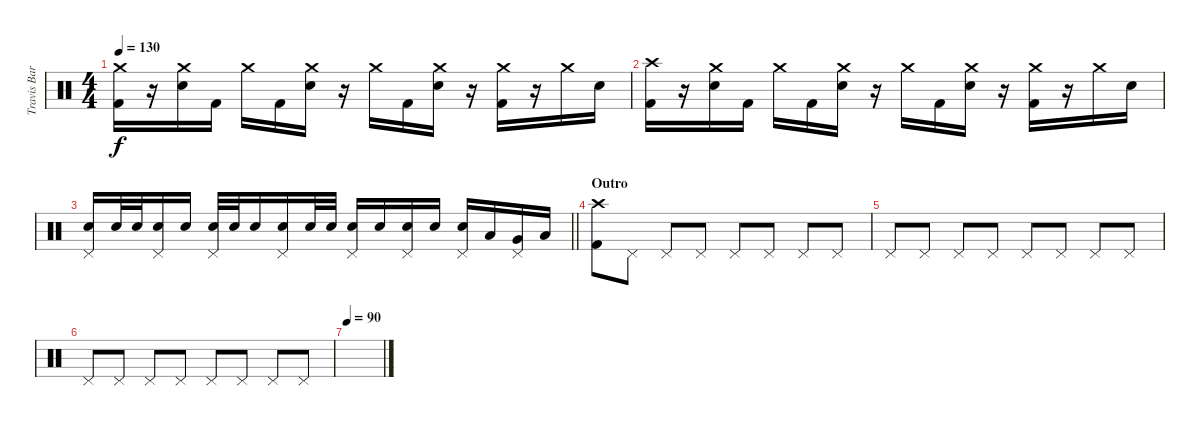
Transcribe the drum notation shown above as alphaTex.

\track ("Travis Barker [Drums]" "Travis Bar") {instrument percussion}
\staff {score}
\articulation defaults
\ts (4 4)
\tempo 130
\clef neutral
\ks c
("Crash medium (hit)" "Kick (hit) 2").16{dy f} r.16 ("Crash medium (hit)" "Electric Snare (hit)").16 "Kick (hit) 2".16 "Crash medium (hit)".16 "Kick (hit) 2".16 ("Crash medium (hit)" "Electric Snare (hit)").16 r.16 "Crash medium (hit)".16 "Kick (hit) 2".16 ("Crash medium (hit)" "Electric Snare (hit)").16 r.16 ("Crash medium (hit)" "Kick (hit) 2").16 r.16 "Crash medium (hit)".16 "Electric Snare (hit)".16 |
("Crash high (hit)" "Kick (hit) 2").16 r.16 ("Crash medium (hit)" "Electric Snare (hit)").16 "Kick (hit) 2".16 "Crash medium (hit)".16 "Kick (hit) 2".16 ("Crash medium (hit)" "Electric Snare (hit)").16 r.16 "Crash medium (hit)".16 "Kick (hit) 2".16 ("Crash medium (hit)" "Electric Snare (hit)").16 r.16 ("Crash medium (hit)" "Kick (hit) 2").16 r.16 "Crash medium (hit)".16 "Electric Snare (hit)".16 |
\barLineRight lightlight
("Pedal Hi-Hat (hit)" "Electric Snare (hit)").16 "Electric Snare (hit)".32 "Electric Snare (hit)".32 ("Pedal Hi-Hat (hit)" "Electric Snare (hit)").16 "Electric Snare (hit)".16 ("Pedal Hi-Hat (hit)" "Electric Snare (hit)").32 "Electric Snare (hit)".32 "Electric Snare (hit)".16 ("Pedal Hi-Hat (hit)" "Electric Snare (hit)").16 "Electric Snare (hit)".32 "Electric Snare (hit)".32 ("Pedal Hi-Hat (hit)" "Electric Snare (hit)").16 "Electric Snare (hit)".16 ("Pedal Hi-Hat (hit)" "Electric Snare (hit)").16 "Electric Snare (hit)".16 ("Pedal Hi-Hat (hit)" "Electric Snare (hit)").16 "Low Tom (hit)".16 ("Pedal Hi-Hat (hit)" "Very Low Tom (hit)").16 "Low Floor Tom (hit)".16 |
\section ("" "Outro")
("Crash high (hit)" "Kick (hit) 2").8 "Pedal Hi-Hat (hit)".8 "Pedal Hi-Hat (hit)".8 "Pedal Hi-Hat (hit)".8 "Pedal Hi-Hat (hit)".8 "Pedal Hi-Hat (hit)".8 "Pedal Hi-Hat (hit)".8 "Pedal Hi-Hat (hit)".8 |
"Pedal Hi-Hat (hit)".8 "Pedal Hi-Hat (hit)".8 "Pedal Hi-Hat (hit)".8 "Pedal Hi-Hat (hit)".8 "Pedal Hi-Hat (hit)".8 "Pedal Hi-Hat (hit)".8 "Pedal Hi-Hat (hit)".8 "Pedal Hi-Hat (hit)".8 |
"Pedal Hi-Hat (hit)".8 "Pedal Hi-Hat (hit)".8 "Pedal Hi-Hat (hit)".8 "Pedal Hi-Hat (hit)".8 "Pedal Hi-Hat (hit)".8 "Pedal Hi-Hat (hit)".8 "Pedal Hi-Hat (hit)".8 "Pedal Hi-Hat (hit)".8 |
\tempo 90
